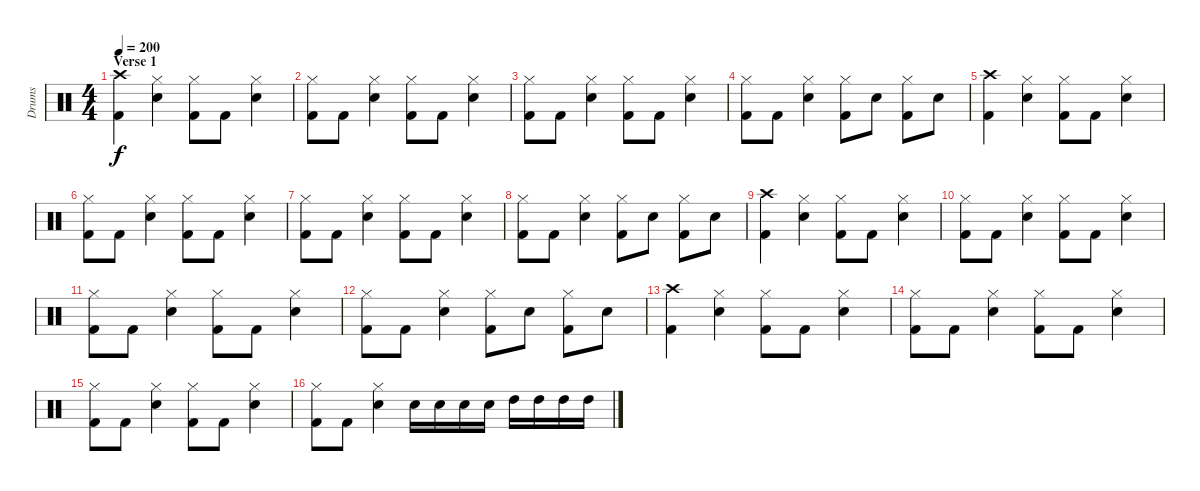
\track ("Drums" "Drums") {instrument percussion}
\staff {score}
\articulation defaults
\ts (4 4)
\section ("" "Verse 1")
\tempo 200
\clef neutral
\ks c
("Crash high (hit)" "Kick (hit) 2").4{dy f} ("Hi-Hat (closed)" "Electric Snare (hit)").4 ("Hi-Hat (closed)" "Kick (hit) 2").8 "Kick (hit) 2".8 ("Hi-Hat (closed)" "Electric Snare (hit)").4 |
("Hi-Hat (closed)" "Kick (hit) 2").8 "Kick (hit) 2".8 ("Hi-Hat (closed)" "Electric Snare (hit)").4 ("Hi-Hat (closed)" "Kick (hit) 2").8 "Kick (hit) 2".8 ("Hi-Hat (closed)" "Electric Snare (hit)").4 |
("Hi-Hat (closed)" "Kick (hit) 2").8 "Kick (hit) 2".8 ("Hi-Hat (closed)" "Electric Snare (hit)").4 ("Hi-Hat (closed)" "Kick (hit) 2").8 "Kick (hit) 2".8 ("Hi-Hat (closed)" "Electric Snare (hit)").4 |
("Hi-Hat (closed)" "Kick (hit) 2").8 "Kick (hit) 2".8 ("Hi-Hat (closed)" "Electric Snare (hit)").4 ("Hi-Hat (closed)" "Kick (hit) 2").8 "Electric Snare (hit)".8 ("Hi-Hat (closed)" "Kick (hit) 2").8 "Electric Snare (hit)".8 |
("Crash high (hit)" "Kick (hit) 2").4 ("Hi-Hat (closed)" "Electric Snare (hit)").4 ("Hi-Hat (closed)" "Kick (hit) 2").8 "Kick (hit) 2".8 ("Hi-Hat (closed)" "Electric Snare (hit)").4 |
("Hi-Hat (closed)" "Kick (hit) 2").8 "Kick (hit) 2".8 ("Hi-Hat (closed)" "Electric Snare (hit)").4 ("Hi-Hat (closed)" "Kick (hit) 2").8 "Kick (hit) 2".8 ("Hi-Hat (closed)" "Electric Snare (hit)").4 |
("Hi-Hat (closed)" "Kick (hit) 2").8 "Kick (hit) 2".8 ("Hi-Hat (closed)" "Electric Snare (hit)").4 ("Hi-Hat (closed)" "Kick (hit) 2").8 "Kick (hit) 2".8 ("Hi-Hat (closed)" "Electric Snare (hit)").4 |
("Hi-Hat (closed)" "Kick (hit) 2").8 "Kick (hit) 2".8 ("Hi-Hat (closed)" "Electric Snare (hit)").4 ("Hi-Hat (closed)" "Kick (hit) 2").8 "Electric Snare (hit)".8 ("Hi-Hat (closed)" "Kick (hit) 2").8 "Electric Snare (hit)".8 |
("Crash high (hit)" "Kick (hit) 2").4 ("Hi-Hat (closed)" "Electric Snare (hit)").4 ("Hi-Hat (closed)" "Kick (hit) 2").8 "Kick (hit) 2".8 ("Hi-Hat (closed)" "Electric Snare (hit)").4 |
("Hi-Hat (closed)" "Kick (hit) 2").8 "Kick (hit) 2".8 ("Hi-Hat (closed)" "Electric Snare (hit)").4 ("Hi-Hat (closed)" "Kick (hit) 2").8 "Kick (hit) 2".8 ("Hi-Hat (closed)" "Electric Snare (hit)").4 |
("Hi-Hat (closed)" "Kick (hit) 2").8 "Kick (hit) 2".8 ("Hi-Hat (closed)" "Electric Snare (hit)").4 ("Hi-Hat (closed)" "Kick (hit) 2").8 "Kick (hit) 2".8 ("Hi-Hat (closed)" "Electric Snare (hit)").4 |
("Hi-Hat (closed)" "Kick (hit) 2").8 "Kick (hit) 2".8 ("Hi-Hat (closed)" "Electric Snare (hit)").4 ("Hi-Hat (closed)" "Kick (hit) 2").8 "Electric Snare (hit)".8 ("Hi-Hat (closed)" "Kick (hit) 2").8 "Electric Snare (hit)".8 |
("Crash high (hit)" "Kick (hit) 2").4 ("Hi-Hat (closed)" "Electric Snare (hit)").4 ("Hi-Hat (closed)" "Kick (hit) 2").8 "Kick (hit) 2".8 ("Hi-Hat (closed)" "Electric Snare (hit)").4 |
("Hi-Hat (closed)" "Kick (hit) 2").8 "Kick (hit) 2".8 ("Hi-Hat (closed)" "Electric Snare (hit)").4 ("Hi-Hat (closed)" "Kick (hit) 2").8 "Kick (hit) 2".8 ("Hi-Hat (closed)" "Electric Snare (hit)").4 |
("Hi-Hat (closed)" "Kick (hit) 2").8 "Kick (hit) 2".8 ("Hi-Hat (closed)" "Electric Snare (hit)").4 ("Hi-Hat (closed)" "Kick (hit) 2").8 "Kick (hit) 2".8 ("Hi-Hat (closed)" "Electric Snare (hit)").4 |
("Hi-Hat (closed)" "Kick (hit) 2").8 "Kick (hit) 2".8 ("Hi-Hat (closed)" "Electric Snare (hit)").4 "Electric Snare (hit)".16 "Electric Snare (hit)".16 "Electric Snare (hit)".16 "Electric Snare (hit)".16 "High Tom (hit)".16 "High Tom (hit)".16 "High Tom (hit)".16 "High Tom (hit)".16
